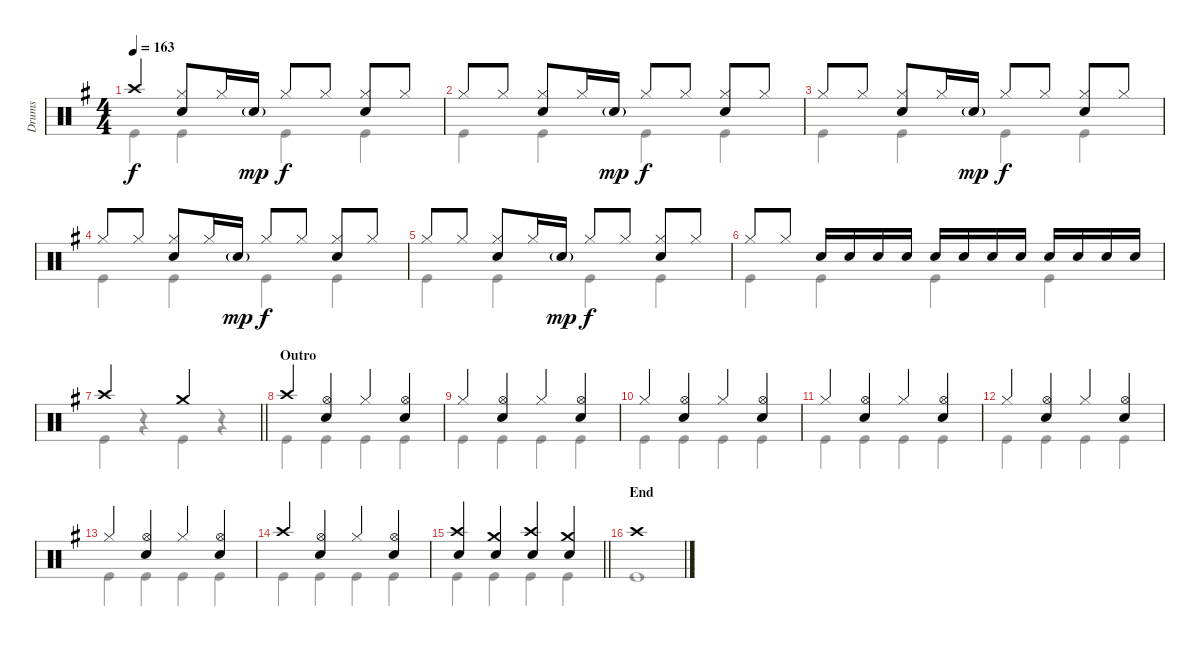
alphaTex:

\track ("Drums" "Drums") {instrument percussion}
\staff {score}
\articulation defaults
\voice
\ts (4 4)
\tempo 163
\clef neutral
\ks g "Crash high (hit)".4{dy f}
("Hi-Hat (closed)" "Snare (hit) 2").8 "Hi-Hat (closed)".16 "Snare (hit) 2"{g}.16{dy mp} "Hi-Hat (closed)".8{dy f} "Hi-Hat (closed)".8 ("Hi-Hat (closed)" "Snare (hit) 2").8 "Hi-Hat (closed)".8 |
"Hi-Hat (closed)".8 "Hi-Hat (closed)".8 ("Hi-Hat (closed)" "Snare (hit) 2").8 "Hi-Hat (closed)".16 "Snare (hit) 2"{g}.16{dy mp} "Hi-Hat (closed)".8{dy f} "Hi-Hat (closed)".8 ("Hi-Hat (closed)" "Snare (hit) 2").8 "Hi-Hat (closed)".8 |
"Hi-Hat (closed)".8 "Hi-Hat (closed)".8 ("Hi-Hat (closed)" "Snare (hit) 2").8 "Hi-Hat (closed)".16 "Snare (hit) 2"{g}.16{dy mp} "Hi-Hat (closed)".8{dy f} "Hi-Hat (closed)".8 ("Hi-Hat (closed)" "Snare (hit) 2").8 "Hi-Hat (closed)".8 |
"Hi-Hat (closed)".8 "Hi-Hat (closed)".8 ("Hi-Hat (closed)" "Snare (hit) 2").8 "Hi-Hat (closed)".16 "Snare (hit) 2"{g}.16{dy mp} "Hi-Hat (closed)".8{dy f} "Hi-Hat (closed)".8 ("Hi-Hat (closed)" "Snare (hit) 2").8 "Hi-Hat (closed)".8 |
"Hi-Hat (closed)".8 "Hi-Hat (closed)".8 ("Hi-Hat (closed)" "Snare (hit) 2").8 "Hi-Hat (closed)".16 "Snare (hit) 2"{g}.16{dy mp} "Hi-Hat (closed)".8{dy f} "Hi-Hat (closed)".8 ("Hi-Hat (closed)" "Snare (hit) 2").8 "Hi-Hat (closed)".8 |
"Hi-Hat (closed)".8 "Hi-Hat (closed)".8 "Snare (hit) 2".16 "Snare (hit) 2".16 "Snare (hit) 2".16 "Snare (hit) 2".16 "Snare (hit) 2".16 "Snare (hit) 2".16 "Snare (hit) 2".16 "Snare (hit) 2".16 "Snare (hit) 2".16 "Snare (hit) 2".16 "Snare (hit) 2".16 "Snare (hit) 2".16 |
\barLineRight lightlight "Crash high (hit)".2 "Crash medium (hit)".2
|
\section ("" "Outro")
"Crash high (hit)".4 ("Hi-Hat (open)" "Snare (hit) 2").4 "Hi-Hat (closed)".4 ("Hi-Hat (open)" "Snare (hit) 2").4 |
"Hi-Hat (closed)".4 ("Hi-Hat (open)" "Snare (hit) 2").4 "Hi-Hat (closed)".4 ("Hi-Hat (open)" "Snare (hit) 2").4 |
"Hi-Hat (closed)".4 ("Hi-Hat (open)" "Snare (hit) 2").4 "Hi-Hat (closed)".4 ("Hi-Hat (open)" "Snare (hit) 2").4 |
"Hi-Hat (closed)".4 ("Hi-Hat (open)" "Snare (hit) 2").4 "Hi-Hat (closed)".4 ("Hi-Hat (open)" "Snare (hit) 2").4 |
"Hi-Hat (closed)".4 ("Hi-Hat (open)" "Snare (hit) 2").4 "Hi-Hat (closed)".4 ("Hi-Hat (open)" "Snare (hit) 2").4 |
"Hi-Hat (closed)".4 ("Hi-Hat (open)" "Snare (hit) 2").4 "Hi-Hat (closed)".4 ("Hi-Hat (open)" "Snare (hit) 2").4 |
"Crash high (hit)".4 ("Hi-Hat (open)" "Snare (hit) 2").4 "Hi-Hat (closed)".4 ("Hi-Hat (open)" "Snare (hit) 2").4 |
\barLineRight lightlight
("Crash high (hit)" "Snare (hit) 2").4 ("Crash medium (hit)" "Snare (hit) 2").4 ("Crash high (hit)" "Snare (hit) 2").4 ("Crash medium (hit)" "Snare (hit) 2").4 |
\section ("" "End")
"Crash high (hit)".1
\voice
\clef neutral
\ottava regular
\simile none
\ks g "Kick (hit)".4{dy f} "Kick (hit)".4 "Kick (hit)".4 "Kick (hit)".4
|
"Kick (hit)".4 "Kick (hit)".4 "Kick (hit)".4 "Kick (hit)".4 |
"Kick (hit)".4 "Kick (hit)".4 "Kick (hit)".4 "Kick (hit)".4 |
"Kick (hit)".4 "Kick (hit)".4 "Kick (hit)".4 "Kick (hit)".4 |
"Kick (hit)".4 "Kick (hit)".4 "Kick (hit)".4 "Kick (hit)".4 |
"Kick (hit)".4 "Kick (hit)".4 "Kick (hit)".4 "Kick (hit)".4 |
\barLineRight lightlight "Kick (hit)".4
r.4 "Kick (hit)".4 r.4 |
"Kick (hit)".4 "Kick (hit)".4 "Kick (hit)".4 "Kick (hit)".4 |
"Kick (hit)".4 "Kick (hit)".4 "Kick (hit)".4 "Kick (hit)".4 |
"Kick (hit)".4 "Kick (hit)".4 "Kick (hit)".4 "Kick (hit)".4 |
"Kick (hit)".4 "Kick (hit)".4 "Kick (hit)".4 "Kick (hit)".4 |
"Kick (hit)".4 "Kick (hit)".4 "Kick (hit)".4 "Kick (hit)".4 |
"Kick (hit)".4 "Kick (hit)".4 "Kick (hit)".4 "Kick (hit)".4 |
"Kick (hit)".4 "Kick (hit)".4 "Kick (hit)".4 "Kick (hit)".4 |
\barLineRight lightlight "Kick (hit)".4 "Kick (hit)".4 "Kick (hit)".4 "Kick (hit)".4
|
"Kick (hit)".1
